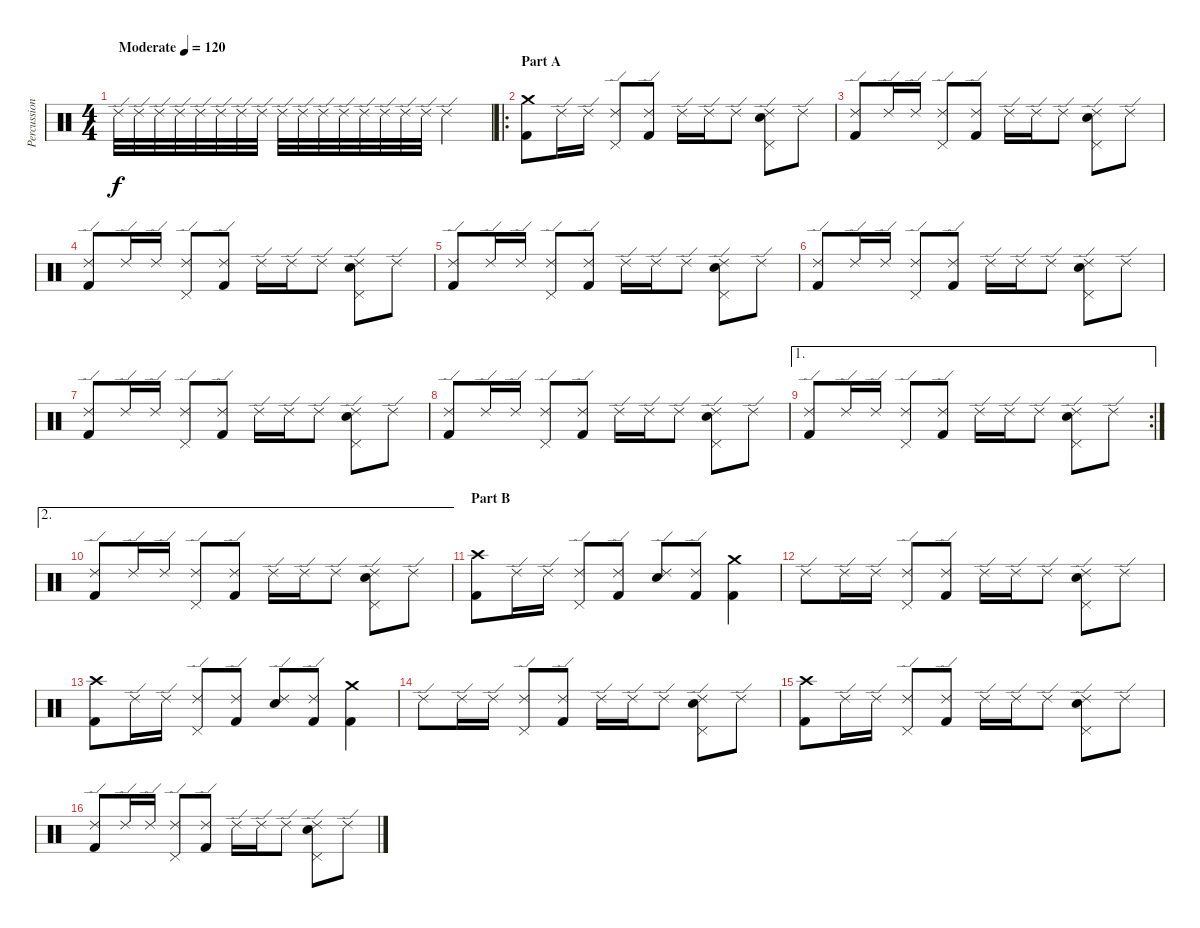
\track ("Percussion" "Percussion") {instrument percussion}
\staff {score}
\articulation defaults
\ts (4 4)
\tempo (120 "Moderate")
\clef neutral
\ks c "Ride (edge) 2".32{dy f} "Ride (edge) 2".32 "Ride (edge) 2".32 "Ride (edge) 2".32 "Ride (edge) 2".32 "Ride (edge) 2".32 "Ride (edge) 2".32 "Ride (edge) 2".32 "Ride (edge) 2".32 "Ride (edge) 2".32 "Ride (edge) 2".32 "Ride (edge) 2".32 "Ride (edge) 2".32 "Ride (edge) 2".32 "Ride (edge) 2".32 "Ride (edge) 2".32 "Ride (edge) 2".2
|
\ro
\section ("" "Part A")
("Crash medium (hit)" "Kick (hit) 2").8 "Ride (edge) 2".16 "Ride (edge) 2".16 ("Ride (edge) 2" "Pedal Hi-Hat (hit)").8 ("Ride (edge) 2" "Kick (hit) 2").8 "Ride (edge) 2".16 "Ride (edge) 2".16 "Ride (edge) 2".8 ("Ride (edge) 2" "Pedal Hi-Hat (hit)" "Snare (hit) 2").8 "Ride (edge) 2".8 |
("Ride (edge) 2" "Kick (hit) 2").8 "Ride (edge) 2".16 "Ride (edge) 2".16 ("Ride (edge) 2" "Pedal Hi-Hat (hit)").8 ("Ride (edge) 2" "Kick (hit) 2").8 "Ride (edge) 2".16 "Ride (edge) 2".16 "Ride (edge) 2".8 ("Ride (edge) 2" "Pedal Hi-Hat (hit)" "Snare (hit) 2").8 "Ride (edge) 2".8 |
("Ride (edge) 2" "Kick (hit) 2").8 "Ride (edge) 2".16 "Ride (edge) 2".16 ("Ride (edge) 2" "Pedal Hi-Hat (hit)").8 ("Ride (edge) 2" "Kick (hit) 2").8 "Ride (edge) 2".16 "Ride (edge) 2".16 "Ride (edge) 2".8 ("Ride (edge) 2" "Pedal Hi-Hat (hit)" "Snare (hit) 2").8 "Ride (edge) 2".8 |
("Ride (edge) 2" "Kick (hit) 2").8 "Ride (edge) 2".16 "Ride (edge) 2".16 ("Ride (edge) 2" "Pedal Hi-Hat (hit)").8 ("Ride (edge) 2" "Kick (hit) 2").8 "Ride (edge) 2".16 "Ride (edge) 2".16 "Ride (edge) 2".8 ("Ride (edge) 2" "Pedal Hi-Hat (hit)" "Snare (hit) 2").8 "Ride (edge) 2".8 |
("Ride (edge) 2" "Kick (hit) 2").8 "Ride (edge) 2".16 "Ride (edge) 2".16 ("Ride (edge) 2" "Pedal Hi-Hat (hit)").8 ("Ride (edge) 2" "Kick (hit) 2").8 "Ride (edge) 2".16 "Ride (edge) 2".16 "Ride (edge) 2".8 ("Ride (edge) 2" "Pedal Hi-Hat (hit)" "Snare (hit) 2").8 "Ride (edge) 2".8 |
("Ride (edge) 2" "Kick (hit) 2").8 "Ride (edge) 2".16 "Ride (edge) 2".16 ("Ride (edge) 2" "Pedal Hi-Hat (hit)").8 ("Ride (edge) 2" "Kick (hit) 2").8 "Ride (edge) 2".16 "Ride (edge) 2".16 "Ride (edge) 2".8 ("Ride (edge) 2" "Pedal Hi-Hat (hit)" "Snare (hit) 2").8 "Ride (edge) 2".8 |
("Ride (edge) 2" "Kick (hit) 2").8 "Ride (edge) 2".16 "Ride (edge) 2".16 ("Ride (edge) 2" "Pedal Hi-Hat (hit)").8 ("Ride (edge) 2" "Kick (hit) 2").8 "Ride (edge) 2".16 "Ride (edge) 2".16 "Ride (edge) 2".8 ("Ride (edge) 2" "Pedal Hi-Hat (hit)" "Snare (hit) 2").8 "Ride (edge) 2".8 |
\ae 1
\rc 2
("Ride (edge) 2" "Kick (hit) 2").8 "Ride (edge) 2".16 "Ride (edge) 2".16 ("Ride (edge) 2" "Pedal Hi-Hat (hit)").8 ("Ride (edge) 2" "Kick (hit) 2").8 "Ride (edge) 2".16 "Ride (edge) 2".16 "Ride (edge) 2".8 ("Ride (edge) 2" "Pedal Hi-Hat (hit)" "Snare (hit) 2").8 "Ride (edge) 2".8 |
\ae 2
("Ride (edge) 2" "Kick (hit) 2").8 "Ride (edge) 2".16 "Ride (edge) 2".16 ("Ride (edge) 2" "Pedal Hi-Hat (hit)").8 ("Ride (edge) 2" "Kick (hit) 2").8 "Ride (edge) 2".16 "Ride (edge) 2".16 "Ride (edge) 2".8 ("Ride (edge) 2" "Pedal Hi-Hat (hit)" "Snare (hit) 2").8 "Ride (edge) 2".8 |
\section ("" "Part B")
("Crash high (hit)" "Kick (hit) 2").8 "Ride (edge) 2".16 "Ride (edge) 2".16 ("Ride (edge) 2" "Pedal Hi-Hat (hit)").8 ("Ride (edge) 2" "Kick (hit) 2").8 ("Ride (edge) 2" "Snare (hit) 2").8 ("Ride (edge) 2" "Kick (hit) 2").8 ("Crash medium (hit)" "Kick (hit) 2").4 |
"Ride (edge) 2".8 "Ride (edge) 2".16 "Ride (edge) 2".16 ("Ride (edge) 2" "Pedal Hi-Hat (hit)").8 ("Ride (edge) 2" "Kick (hit) 2").8 "Ride (edge) 2".16 "Ride (edge) 2".16 "Ride (edge) 2".8 ("Ride (edge) 2" "Pedal Hi-Hat (hit)" "Snare (hit) 2").8 "Ride (edge) 2".8 |
("Crash high (hit)" "Kick (hit) 2").8 "Ride (edge) 2".16 "Ride (edge) 2".16 ("Ride (edge) 2" "Pedal Hi-Hat (hit)").8 ("Ride (edge) 2" "Kick (hit) 2").8 ("Ride (edge) 2" "Snare (hit) 2").8 ("Ride (edge) 2" "Kick (hit) 2").8 ("Crash medium (hit)" "Kick (hit) 2").4 |
"Ride (edge) 2".8 "Ride (edge) 2".16 "Ride (edge) 2".16 ("Ride (edge) 2" "Pedal Hi-Hat (hit)").8 ("Ride (edge) 2" "Kick (hit) 2").8 "Ride (edge) 2".16 "Ride (edge) 2".16 "Ride (edge) 2".8 ("Ride (edge) 2" "Pedal Hi-Hat (hit)" "Snare (hit) 2").8 "Ride (edge) 2".8 |
("Crash high (hit)" "Kick (hit) 2").8 "Ride (edge) 2".16 "Ride (edge) 2".16 ("Ride (edge) 2" "Pedal Hi-Hat (hit)").8 ("Ride (edge) 2" "Kick (hit) 2").8 "Ride (edge) 2".16 "Ride (edge) 2".16 "Ride (edge) 2".8 ("Ride (edge) 2" "Pedal Hi-Hat (hit)" "Snare (hit) 2").8 "Ride (edge) 2".8 |
("Ride (edge) 2" "Kick (hit) 2").8 "Ride (edge) 2".16 "Ride (edge) 2".16 ("Ride (edge) 2" "Pedal Hi-Hat (hit)").8 ("Ride (edge) 2" "Kick (hit) 2").8 "Ride (edge) 2".16 "Ride (edge) 2".16 "Ride (edge) 2".8 ("Ride (edge) 2" "Pedal Hi-Hat (hit)" "Snare (hit) 2").8 "Ride (edge) 2".8
